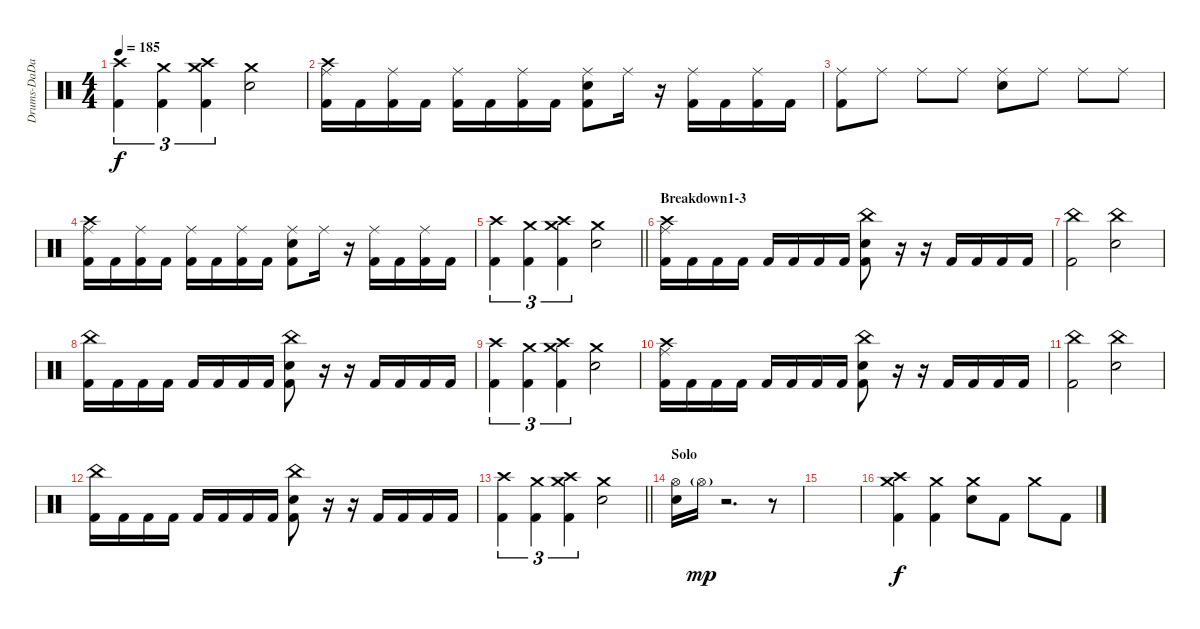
\track ("Drums-DaDa" "Drums-DaDa") {instrument percussion}
\staff {score}
\articulation defaults
\ts (4 4)
\tempo 185
\clef neutral
\ks c
("Crash high (hit)" "Kick (hit) 2").4{tu (3 2) dy f} ("Crash medium (hit)" "Kick (hit) 2").4{tu (3 2)} ("Crash medium (hit)" "Crash high (hit)" "Kick (hit) 2").4{tu (3 2)} ("Crash medium (hit)" "Electric Snare (hit)").2 |
("Crash high (hit)" "Ride (middle)" "Kick (hit) 2").16 "Kick (hit) 2".16 ("Ride (middle)" "Kick (hit) 2").16 "Kick (hit) 2".16 ("Ride (middle)" "Kick (hit) 2").16 "Kick (hit) 2".16 ("Ride (middle)" "Kick (hit) 2").16 "Kick (hit) 2".16 ("Ride (middle)" "Electric Snare (hit)" "Kick (hit) 2").8 "Ride (middle)".16 r.16 ("Ride (middle)" "Kick (hit) 2").16 "Kick (hit) 2".16 ("Ride (middle)" "Kick (hit) 2").16 "Kick (hit) 2".16 |
("Ride (middle)" "Kick (hit) 2").8 "Ride (middle)".8 "Ride (middle)".8 "Ride (middle)".8 ("Ride (middle)" "Electric Snare (hit)").8 "Ride (middle)".8 "Ride (middle)".8 "Ride (middle)".8 |
("Crash high (hit)" "Ride (middle)" "Kick (hit) 2").16 "Kick (hit) 2".16 ("Ride (middle)" "Kick (hit) 2").16 "Kick (hit) 2".16 ("Ride (middle)" "Kick (hit) 2").16 "Kick (hit) 2".16 ("Ride (middle)" "Kick (hit) 2").16 "Kick (hit) 2".16 ("Ride (middle)" "Electric Snare (hit)" "Kick (hit) 2").8 "Ride (middle)".16 r.16 ("Ride (middle)" "Kick (hit) 2").16 "Kick (hit) 2".16 ("Ride (middle)" "Kick (hit) 2").16 "Kick (hit) 2".16 |
\barLineRight lightlight
("Crash high (hit)" "Kick (hit) 2").4{tu (3 2)} ("Crash medium (hit)" "Kick (hit) 2").4{tu (3 2)} ("Crash medium (hit)" "Crash high (hit)" "Kick (hit) 2").4{tu (3 2)} ("Crash medium (hit)" "Electric Snare (hit)").2 |
\section ("" "Breakdown1-3")
("Crash high (hit)" "Ride (middle)" "Kick (hit) 2").16 "Kick (hit) 2".16 "Kick (hit) 2".16 "Kick (hit) 2".16 "Kick (hit) 2".16 "Kick (hit) 2".16 "Kick (hit) 2".16 "Kick (hit) 2".16 ("China (hit)" "Electric Snare (hit)" "Kick (hit) 2").8 r.16 r.16 "Kick (hit) 2".16 "Kick (hit) 2".16 "Kick (hit) 2".16 "Kick (hit) 2".16 |
("China (hit)" "Kick (hit) 2").2 ("China (hit)" "Electric Snare (hit)").2 |
("China (hit)" "Kick (hit) 2").16 "Kick (hit) 2".16 "Kick (hit) 2".16 "Kick (hit) 2".16 "Kick (hit) 2".16 "Kick (hit) 2".16 "Kick (hit) 2".16 "Kick (hit) 2".16 ("China (hit)" "Electric Snare (hit)" "Kick (hit) 2").8 r.16 r.16 "Kick (hit) 2".16 "Kick (hit) 2".16 "Kick (hit) 2".16 "Kick (hit) 2".16 |
("Crash high (hit)" "Kick (hit) 2").4{tu (3 2)} ("Crash medium (hit)" "Kick (hit) 2").4{tu (3 2)} ("Crash medium (hit)" "Crash high (hit)" "Kick (hit) 2").4{tu (3 2)} ("Crash medium (hit)" "Electric Snare (hit)").2 |
("Crash high (hit)" "Ride (middle)" "Kick (hit) 2").16 "Kick (hit) 2".16 "Kick (hit) 2".16 "Kick (hit) 2".16 "Kick (hit) 2".16 "Kick (hit) 2".16 "Kick (hit) 2".16 "Kick (hit) 2".16 ("China (hit)" "Electric Snare (hit)" "Kick (hit) 2").8 r.16 r.16 "Kick (hit) 2".16 "Kick (hit) 2".16 "Kick (hit) 2".16 "Kick (hit) 2".16 |
("China (hit)" "Kick (hit) 2").2 ("China (hit)" "Electric Snare (hit)").2 |
("China (hit)" "Kick (hit) 2").16 "Kick (hit) 2".16 "Kick (hit) 2".16 "Kick (hit) 2".16 "Kick (hit) 2".16 "Kick (hit) 2".16 "Kick (hit) 2".16 "Kick (hit) 2".16 ("China (hit)" "Electric Snare (hit)" "Kick (hit) 2").8 r.16 r.16 "Kick (hit) 2".16 "Kick (hit) 2".16 "Kick (hit) 2".16 "Kick (hit) 2".16 |
\barLineRight lightlight
("Crash high (hit)" "Kick (hit) 2").4{tu (3 2)} ("Crash medium (hit)" "Kick (hit) 2").4{tu (3 2)} ("Crash medium (hit)" "Crash high (hit)" "Kick (hit) 2").4{tu (3 2)} ("Crash medium (hit)" "Electric Snare (hit)").2 |
\section ("" "Solo")
("Hi-Hat (open)" "Electric Snare (hit)").16 "Hi-Hat (open)"{g}.16{dy mp} r.2{d} r.8 |
|
("Crash medium (hit)" "Crash high (hit)" "Kick (hit) 2").4{dy f} ("Crash medium (hit)" "Kick (hit) 2").4 ("Crash medium (hit)" "Electric Snare (hit)").8 "Kick (hit) 2".8 "Crash medium (hit)".8 "Kick (hit) 2".8
